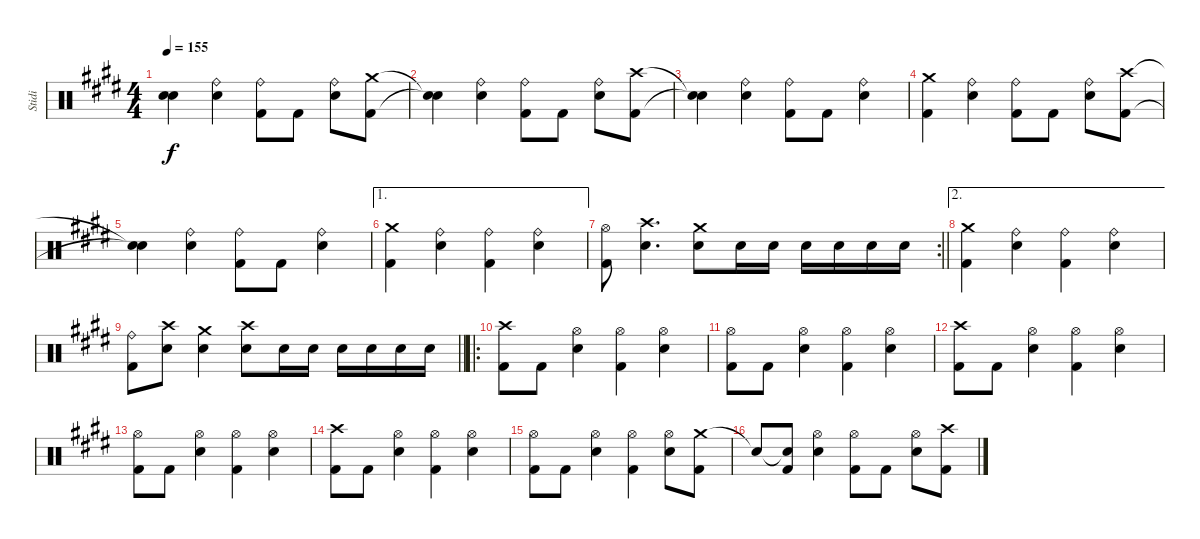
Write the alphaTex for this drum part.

\track ("Stidi" "Stidi") {instrument percussion}
\staff {score}
\articulation defaults
\ts (4 4)
\tempo 155
\clef neutral
\ks e
("Snare (hit)"{t} "Snare (hit)"{t}).4{dy f} ("Ride (bell)" "Snare (hit) 2").4 ("Ride (bell)" "Kick (hit) 2").8 "Kick (hit) 2".8 ("Ride (bell)" "Snare (hit) 2").8 ("Crash medium (hit)" "Kick (hit) 2").8 |
("Snare (hit)"{t} "Snare (hit)"{t}).4 ("Ride (bell)" "Snare (hit) 2").4 ("Ride (bell)" "Kick (hit) 2").8 "Kick (hit) 2".8 ("Ride (bell)" "Snare (hit) 2").8 ("Crash high (hit)" "Kick (hit) 2").8 |
("Snare (hit)"{t} "Snare (hit)"{t}).4 ("Ride (bell)" "Snare (hit) 2").4 ("Ride (bell)" "Kick (hit) 2").8 "Kick (hit) 2".8 ("Ride (bell)" "Snare (hit) 2").4 |
("Crash medium (hit)" "Kick (hit) 2").4 ("Ride (bell)" "Snare (hit) 2").4 ("Ride (bell)" "Kick (hit) 2").8 "Kick (hit) 2".8 ("Ride (bell)" "Snare (hit) 2").8 ("Crash high (hit)" "Kick (hit) 2").8 |
("Snare (hit)"{t} "Snare (hit)"{t}).4 ("Ride (bell)" "Snare (hit) 2").4 ("Ride (bell)" "Kick (hit) 2").8 "Kick (hit) 2".8 ("Ride (bell)" "Snare (hit) 2").4 |
\ae 1
("Crash medium (hit)" "Kick (hit) 2").4 ("Ride (bell)" "Snare (hit) 2").4 ("Ride (bell)" "Kick (hit) 2").4 ("Ride (bell)" "Snare (hit) 2").4 |
\rc 2
\barLineRight lightlight
("Hi-Hat (open)" "Kick (hit) 2").8 ("Crash high (hit)" "Snare (hit) 2").4{d} ("Crash medium (hit)" "Snare (hit) 2").8 "Snare (hit) 2".16 "Snare (hit) 2".16 "Snare (hit) 2".16 "Snare (hit) 2".16 "Snare (hit) 2".16 "Snare (hit) 2".16 |
\ae 2
("Crash medium (hit)" "Kick (hit) 2").4 ("Ride (bell)" "Snare (hit) 2").4 ("Ride (bell)" "Kick (hit) 2").4 ("Ride (bell)" "Snare (hit) 2").4 |
\barLineRight lightlight
("Ride (bell)" "Kick (hit) 2").8 ("Crash high (hit)" "Snare (hit) 2").8 ("Crash medium (hit)" "Snare (hit) 2").4 ("Crash high (hit)" "Snare (hit) 2").8 "Snare (hit) 2".16 "Snare (hit) 2".16 "Snare (hit) 2".16 "Snare (hit) 2".16 "Snare (hit) 2".16 "Snare (hit) 2".16 |
\ro
("Crash high (hit)" "Kick (hit) 2").8 "Kick (hit) 2".8 ("Hi-Hat (open)" "Snare (hit) 2").4 ("Hi-Hat (open)" "Kick (hit) 2").4 ("Hi-Hat (open)" "Snare (hit) 2").4 |
("Hi-Hat (open)" "Kick (hit) 2").8 "Kick (hit) 2".8 ("Hi-Hat (open)" "Snare (hit) 2").4 ("Hi-Hat (open)" "Kick (hit) 2").4 ("Hi-Hat (open)" "Snare (hit) 2").4 |
("Crash high (hit)" "Kick (hit) 2").8 "Kick (hit) 2".8 ("Hi-Hat (open)" "Snare (hit) 2").4 ("Hi-Hat (open)" "Kick (hit) 2").4 ("Hi-Hat (open)" "Snare (hit) 2").4 |
("Hi-Hat (open)" "Kick (hit) 2").8 "Kick (hit) 2".8 ("Hi-Hat (open)" "Snare (hit) 2").4 ("Hi-Hat (open)" "Kick (hit) 2").4 ("Hi-Hat (open)" "Snare (hit) 2").4 |
("Crash high (hit)" "Kick (hit) 2").8 "Kick (hit) 2".8 ("Hi-Hat (open)" "Snare (hit) 2").4 ("Hi-Hat (open)" "Kick (hit) 2").4 ("Hi-Hat (open)" "Snare (hit) 2").4 |
("Hi-Hat (open)" "Kick (hit) 2").8 "Kick (hit) 2".8 ("Hi-Hat (open)" "Snare (hit) 2").4 ("Hi-Hat (open)" "Kick (hit) 2").4 ("Hi-Hat (open)" "Snare (hit) 2").8 ("Crash medium (hit)" "Kick (hit) 2").8 |
"Snare (hit)"{t}.8 ("Snare (hit)"{t} "Kick (hit) 2").8 ("Hi-Hat (open)" "Snare (hit) 2").4 ("Hi-Hat (open)" "Kick (hit) 2").8 "Kick (hit) 2".8 ("Hi-Hat (open)" "Snare (hit) 2").8 ("Crash high (hit)" "Kick (hit) 2").8
